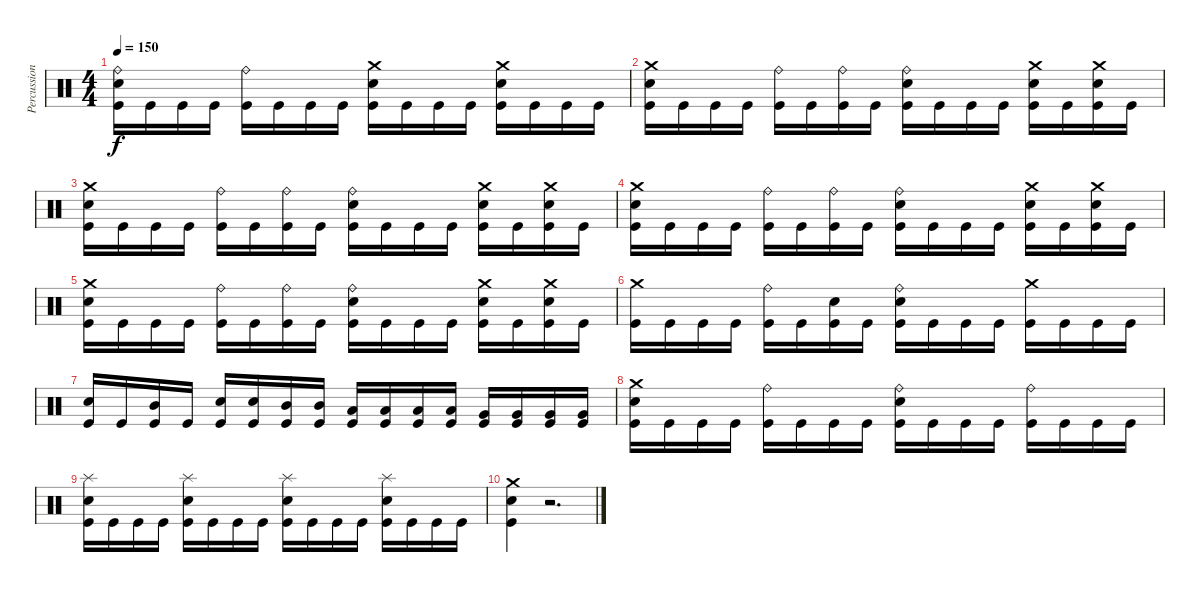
\track ("Percussions" "Percussion") {instrument percussion}
\staff {score}
\articulation defaults
\ts (4 4)
\tempo 150
\clef neutral
\ks c
("Kick (hit)" "Electric Snare (hit)" "Ride (bell)").16{dy f} "Kick (hit)".16 "Kick (hit)".16 "Kick (hit)".16 ("Kick (hit)" "Ride (bell)").16 "Kick (hit)".16 "Kick (hit)".16 "Kick (hit)".16 ("Kick (hit)" "Electric Snare (hit)" "Crash medium (hit)").16 "Kick (hit)".16 "Kick (hit)".16 "Kick (hit)".16 ("Kick (hit)" "Electric Snare (hit)" "Crash medium (hit)").16 "Kick (hit)".16 "Kick (hit)".16 "Kick (hit)".16 |
("Kick (hit)" "Electric Snare (hit)" "Crash medium (hit)").16 "Kick (hit)".16 "Kick (hit)".16 "Kick (hit)".16 ("Kick (hit)" "Ride (bell)").16 "Kick (hit)".16 ("Kick (hit)" "Ride (bell)").16 "Kick (hit)".16 ("Kick (hit)" "Electric Snare (hit)" "Ride (bell)").16 "Kick (hit)".16 "Kick (hit)".16 "Kick (hit)".16 ("Kick (hit)" "Electric Snare (hit)" "Crash medium (hit)").16 "Kick (hit)".16 ("Kick (hit)" "Electric Snare (hit)" "Crash medium (hit)").16 "Kick (hit)".16 |
("Kick (hit)" "Electric Snare (hit)" "Crash medium (hit)").16 "Kick (hit)".16 "Kick (hit)".16 "Kick (hit)".16 ("Kick (hit)" "Ride (bell)").16 "Kick (hit)".16 ("Kick (hit)" "Ride (bell)").16 "Kick (hit)".16 ("Kick (hit)" "Electric Snare (hit)" "Ride (bell)").16 "Kick (hit)".16 "Kick (hit)".16 "Kick (hit)".16 ("Kick (hit)" "Electric Snare (hit)" "Crash medium (hit)").16 "Kick (hit)".16 ("Kick (hit)" "Electric Snare (hit)" "Crash medium (hit)").16 "Kick (hit)".16 |
("Kick (hit)" "Electric Snare (hit)" "Crash medium (hit)").16 "Kick (hit)".16 "Kick (hit)".16 "Kick (hit)".16 ("Kick (hit)" "Ride (bell)").16 "Kick (hit)".16 ("Kick (hit)" "Ride (bell)").16 "Kick (hit)".16 ("Kick (hit)" "Electric Snare (hit)" "Ride (bell)").16 "Kick (hit)".16 "Kick (hit)".16 "Kick (hit)".16 ("Kick (hit)" "Electric Snare (hit)" "Crash medium (hit)").16 "Kick (hit)".16 ("Kick (hit)" "Electric Snare (hit)" "Crash medium (hit)").16 "Kick (hit)".16 |
("Kick (hit)" "Electric Snare (hit)" "Crash medium (hit)").16 "Kick (hit)".16 "Kick (hit)".16 "Kick (hit)".16 ("Kick (hit)" "Ride (bell)").16 "Kick (hit)".16 ("Kick (hit)" "Ride (bell)").16 "Kick (hit)".16 ("Kick (hit)" "Electric Snare (hit)" "Ride (bell)").16 "Kick (hit)".16 "Kick (hit)".16 "Kick (hit)".16 ("Kick (hit)" "Electric Snare (hit)" "Crash medium (hit)").16 "Kick (hit)".16 ("Kick (hit)" "Electric Snare (hit)" "Crash medium (hit)").16 "Kick (hit)".16 |
("Kick (hit)" "Crash medium (hit)").16 "Kick (hit)".16 "Kick (hit)".16 "Kick (hit)".16 ("Kick (hit)" "Ride (bell)").16 "Kick (hit)".16 ("Kick (hit)" "Electric Snare (hit)").16 "Kick (hit)".16 ("Kick (hit)" "Electric Snare (hit)" "Ride (bell)").16 "Kick (hit)".16 "Kick (hit)".16 "Kick (hit)".16 ("Kick (hit)" "Crash medium (hit)").16 "Kick (hit)".16 "Kick (hit)".16 "Kick (hit)".16 |
("Kick (hit)" "Electric Snare (hit)").16 "Kick (hit)".16 ("Kick (hit)" "Mid Tom (hit)").16 "Kick (hit)".16 ("Kick (hit)" "Electric Snare (hit)").16 ("Kick (hit)" "Electric Snare (hit)").16 ("Kick (hit)" "Mid Tom (hit)").16 ("Kick (hit)" "Mid Tom (hit)").16 ("Kick (hit)" "Low Tom (hit)").16 ("Kick (hit)" "Low Tom (hit)").16 ("Kick (hit)" "Low Tom (hit)").16 ("Kick (hit)" "Low Tom (hit)").16 ("Kick (hit)" "Very Low Tom (hit)").16 ("Kick (hit)" "Very Low Tom (hit)").16 ("Kick (hit)" "Very Low Tom (hit)").16 ("Kick (hit)" "Very Low Tom (hit)").16 |
("Kick (hit)" "Electric Snare (hit)" "Crash medium (hit)").16 "Kick (hit)".16 "Kick (hit)".16 "Kick (hit)".16 ("Kick (hit)" "Ride (bell)").16 "Kick (hit)".16 "Kick (hit)".16 "Kick (hit)".16 ("Kick (hit)" "Electric Snare (hit)" "Ride (bell)").16 "Kick (hit)".16 "Kick (hit)".16 "Kick (hit)".16 ("Kick (hit)" "Ride (bell)").16 "Kick (hit)".16 "Kick (hit)".16 "Kick (hit)".16 |
("Kick (hit)" "Electric Snare (hit)" "Splash (hit)").16 "Kick (hit)".16 "Kick (hit)".16 "Kick (hit)".16 ("Kick (hit)" "Electric Snare (hit)" "Splash (hit)").16 "Kick (hit)".16 "Kick (hit)".16 "Kick (hit)".16 ("Kick (hit)" "Electric Snare (hit)" "Splash (hit)").16 "Kick (hit)".16 "Kick (hit)".16 "Kick (hit)".16 ("Kick (hit)" "Electric Snare (hit)" "Splash (hit)").16 "Kick (hit)".16 "Kick (hit)".16 "Kick (hit)".16 |
("Kick (hit)" "Electric Snare (hit)" "Crash medium (hit)").4 r.2{d}
